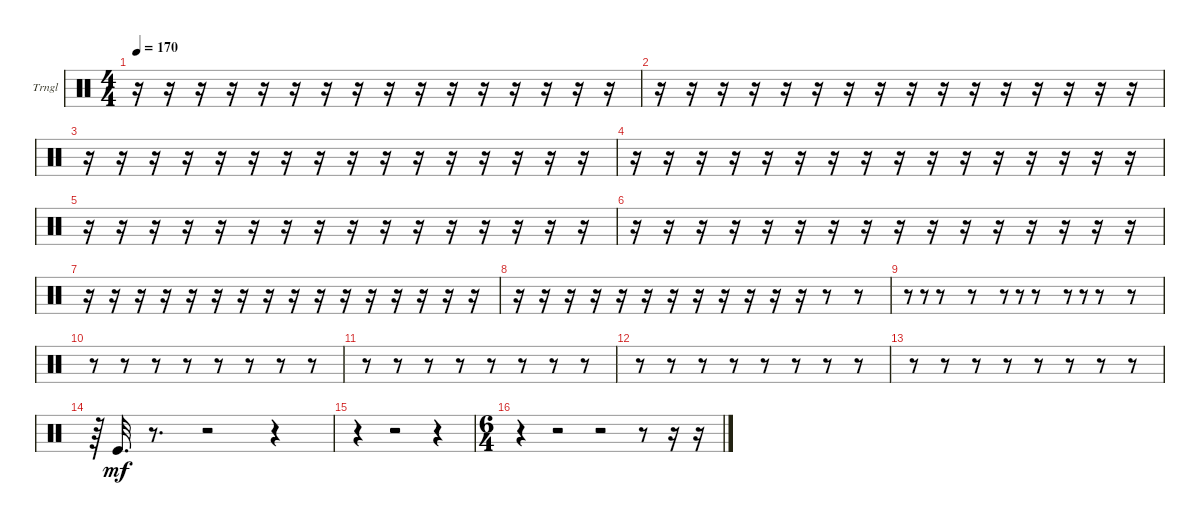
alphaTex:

\bracketExtendMode groupsimilarinstruments
\firstSystemTrackNameOrientation horizontal
\otherSystemsTrackNameOrientation horizontal
\track ("Triangle" "Trngl") {instrument percussion}
\staff {score}
\articulation defaults
\ts (4 4)
\tempo 170
\clef neutral
\ks c
r.16{dy mf} r.16 r.16 r.16 r.16 r.16 r.16 r.16 r.16 r.16 r.16 r.16 r.16 r.16 r.16 r.16 |
r.16 r.16 r.16 r.16 r.16 r.16 r.16 r.16 r.16 r.16 r.16 r.16 r.16 r.16 r.16 r.16 |
r.16 r.16 r.16 r.16 r.16 r.16 r.16 r.16 r.16 r.16 r.16 r.16 r.16 r.16 r.16 r.16 |
r.16 r.16 r.16 r.16 r.16 r.16 r.16 r.16 r.16 r.16 r.16 r.16 r.16 r.16 r.16 r.16 |
r.16 r.16 r.16 r.16 r.16 r.16 r.16 r.16 r.16 r.16 r.16 r.16 r.16 r.16 r.16 r.16 |
r.16 r.16 r.16 r.16 r.16 r.16 r.16 r.16 r.16 r.16 r.16 r.16 r.16 r.16 r.16 r.16 |
r.16 r.16 r.16 r.16 r.16 r.16 r.16 r.16 r.16 r.16 r.16 r.16 r.16 r.16 r.16 r.16 |
r.16 r.16 r.16 r.16 r.16 r.16 r.16 r.16 r.16 r.16 r.16 r.16 r.8 r.8 |
r.8 r.8{gr} r.8 r.8 r.8 r.8{gr} r.8 r.8 r.8{gr} r.8 r.8 |
r.8 r.8 r.8 r.8 r.8 r.8 r.8 r.8 |
r.8 r.8 r.8 r.8 r.8 r.8 r.8 r.8 |
r.8 r.8 r.8 r.8 r.8 r.8 r.8 r.8 |
r.8 r.8 r.8 r.8 r.8 r.8 r.8 r.8 |
r.64 "Kick (hit)".32{d} r.8{d} r.2 r.4 |
r.4 r.2 r.4 |
\ts (6 4)
\beaming (8 6 6)
r.4 r.2 r.2 r.8 r.16 r.16
